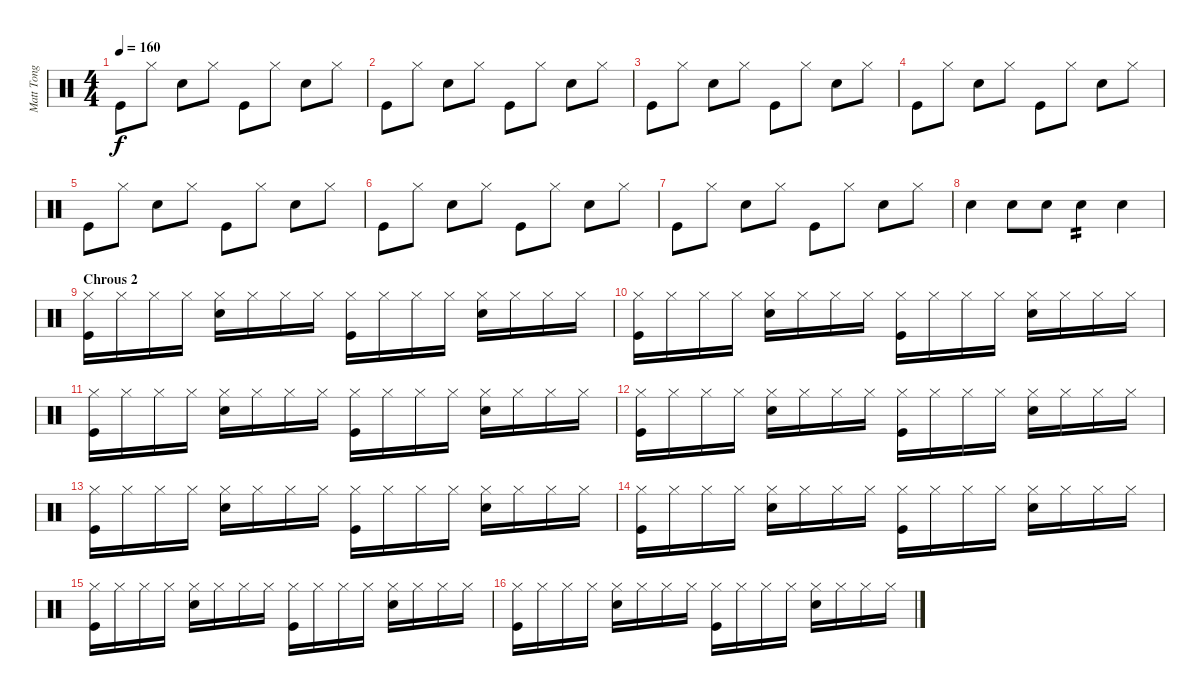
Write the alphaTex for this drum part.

\track ("Matt Tong" "Matt Tong") {instrument percussion}
\staff {score}
\articulation defaults
\ts (4 4)
\tempo 160
\clef neutral
\ks c "Kick (hit)".8{dy f} "Hi-Hat (closed)".8 "Electric Snare (hit)".8 "Hi-Hat (closed)".8 "Kick (hit)".8 "Hi-Hat (closed)".8 "Electric Snare (hit)".8 "Hi-Hat (closed)".8
|
"Kick (hit)".8 "Hi-Hat (closed)".8 "Electric Snare (hit)".8 "Hi-Hat (closed)".8 "Kick (hit)".8 "Hi-Hat (closed)".8 "Electric Snare (hit)".8 "Hi-Hat (closed)".8 |
"Kick (hit)".8 "Hi-Hat (closed)".8 "Electric Snare (hit)".8 "Hi-Hat (closed)".8 "Kick (hit)".8 "Hi-Hat (closed)".8 "Electric Snare (hit)".8 "Hi-Hat (closed)".8 |
"Kick (hit)".8 "Hi-Hat (closed)".8 "Electric Snare (hit)".8 "Hi-Hat (closed)".8 "Kick (hit)".8 "Hi-Hat (closed)".8 "Electric Snare (hit)".8 "Hi-Hat (closed)".8 |
"Kick (hit)".8 "Hi-Hat (closed)".8 "Electric Snare (hit)".8 "Hi-Hat (closed)".8 "Kick (hit)".8 "Hi-Hat (closed)".8 "Electric Snare (hit)".8 "Hi-Hat (closed)".8 |
"Kick (hit)".8 "Hi-Hat (closed)".8 "Electric Snare (hit)".8 "Hi-Hat (closed)".8 "Kick (hit)".8 "Hi-Hat (closed)".8 "Electric Snare (hit)".8 "Hi-Hat (closed)".8 |
"Kick (hit)".8 "Hi-Hat (closed)".8 "Electric Snare (hit)".8 "Hi-Hat (closed)".8 "Kick (hit)".8 "Hi-Hat (closed)".8 "Electric Snare (hit)".8 "Hi-Hat (closed)".8 |
"Electric Snare (hit)".4 "Electric Snare (hit)".8 "Electric Snare (hit)".8 "Electric Snare (hit)".4{tp 2} "Electric Snare (hit)".4 |
\section ("" "Chrous 2")
("Hi-Hat (closed)" "Kick (hit)").16 "Hi-Hat (closed)".16 "Hi-Hat (closed)".16 "Hi-Hat (closed)".16 ("Hi-Hat (closed)" "Electric Snare (hit)").16 "Hi-Hat (closed)".16 "Hi-Hat (closed)".16 "Hi-Hat (closed)".16 ("Hi-Hat (closed)" "Kick (hit)").16 "Hi-Hat (closed)".16 "Hi-Hat (closed)".16 "Hi-Hat (closed)".16 ("Hi-Hat (closed)" "Electric Snare (hit)").16 "Hi-Hat (closed)".16 "Hi-Hat (closed)".16 "Hi-Hat (closed)".16 |
("Hi-Hat (closed)" "Kick (hit)").16 "Hi-Hat (closed)".16 "Hi-Hat (closed)".16 "Hi-Hat (closed)".16 ("Hi-Hat (closed)" "Electric Snare (hit)").16 "Hi-Hat (closed)".16 "Hi-Hat (closed)".16 "Hi-Hat (closed)".16 ("Hi-Hat (closed)" "Kick (hit)").16 "Hi-Hat (closed)".16 "Hi-Hat (closed)".16 "Hi-Hat (closed)".16 ("Hi-Hat (closed)" "Electric Snare (hit)").16 "Hi-Hat (closed)".16 "Hi-Hat (closed)".16 "Hi-Hat (closed)".16 |
("Hi-Hat (closed)" "Kick (hit)").16 "Hi-Hat (closed)".16 "Hi-Hat (closed)".16 "Hi-Hat (closed)".16 ("Hi-Hat (closed)" "Electric Snare (hit)").16 "Hi-Hat (closed)".16 "Hi-Hat (closed)".16 "Hi-Hat (closed)".16 ("Hi-Hat (closed)" "Kick (hit)").16 "Hi-Hat (closed)".16 "Hi-Hat (closed)".16 "Hi-Hat (closed)".16 ("Hi-Hat (closed)" "Electric Snare (hit)").16 "Hi-Hat (closed)".16 "Hi-Hat (closed)".16 "Hi-Hat (closed)".16 |
("Hi-Hat (closed)" "Kick (hit)").16 "Hi-Hat (closed)".16 "Hi-Hat (closed)".16 "Hi-Hat (closed)".16 ("Hi-Hat (closed)" "Electric Snare (hit)").16 "Hi-Hat (closed)".16 "Hi-Hat (closed)".16 "Hi-Hat (closed)".16 ("Hi-Hat (closed)" "Kick (hit)").16 "Hi-Hat (closed)".16 "Hi-Hat (closed)".16 "Hi-Hat (closed)".16 ("Hi-Hat (closed)" "Electric Snare (hit)").16 "Hi-Hat (closed)".16 "Hi-Hat (closed)".16 "Hi-Hat (closed)".16 |
("Hi-Hat (closed)" "Kick (hit)").16 "Hi-Hat (closed)".16 "Hi-Hat (closed)".16 "Hi-Hat (closed)".16 ("Hi-Hat (closed)" "Electric Snare (hit)").16 "Hi-Hat (closed)".16 "Hi-Hat (closed)".16 "Hi-Hat (closed)".16 ("Hi-Hat (closed)" "Kick (hit)").16 "Hi-Hat (closed)".16 "Hi-Hat (closed)".16 "Hi-Hat (closed)".16 ("Hi-Hat (closed)" "Electric Snare (hit)").16 "Hi-Hat (closed)".16 "Hi-Hat (closed)".16 "Hi-Hat (closed)".16 |
("Hi-Hat (closed)" "Kick (hit)").16 "Hi-Hat (closed)".16 "Hi-Hat (closed)".16 "Hi-Hat (closed)".16 ("Hi-Hat (closed)" "Electric Snare (hit)").16 "Hi-Hat (closed)".16 "Hi-Hat (closed)".16 "Hi-Hat (closed)".16 ("Hi-Hat (closed)" "Kick (hit)").16 "Hi-Hat (closed)".16 "Hi-Hat (closed)".16 "Hi-Hat (closed)".16 ("Hi-Hat (closed)" "Electric Snare (hit)").16 "Hi-Hat (closed)".16 "Hi-Hat (closed)".16 "Hi-Hat (closed)".16 |
("Hi-Hat (closed)" "Kick (hit)").16 "Hi-Hat (closed)".16 "Hi-Hat (closed)".16 "Hi-Hat (closed)".16 ("Hi-Hat (closed)" "Electric Snare (hit)").16 "Hi-Hat (closed)".16 "Hi-Hat (closed)".16 "Hi-Hat (closed)".16 ("Hi-Hat (closed)" "Kick (hit)").16 "Hi-Hat (closed)".16 "Hi-Hat (closed)".16 "Hi-Hat (closed)".16 ("Hi-Hat (closed)" "Electric Snare (hit)").16 "Hi-Hat (closed)".16 "Hi-Hat (closed)".16 "Hi-Hat (closed)".16 |
("Hi-Hat (closed)" "Kick (hit)").16 "Hi-Hat (closed)".16 "Hi-Hat (closed)".16 "Hi-Hat (closed)".16 ("Hi-Hat (closed)" "Electric Snare (hit)").16 "Hi-Hat (closed)".16 "Hi-Hat (closed)".16 "Hi-Hat (closed)".16 ("Hi-Hat (closed)" "Kick (hit)").16 "Hi-Hat (closed)".16 "Hi-Hat (closed)".16 "Hi-Hat (closed)".16 ("Hi-Hat (closed)" "Electric Snare (hit)").16 "Hi-Hat (closed)".16 "Hi-Hat (closed)".16 "Hi-Hat (closed)".16
